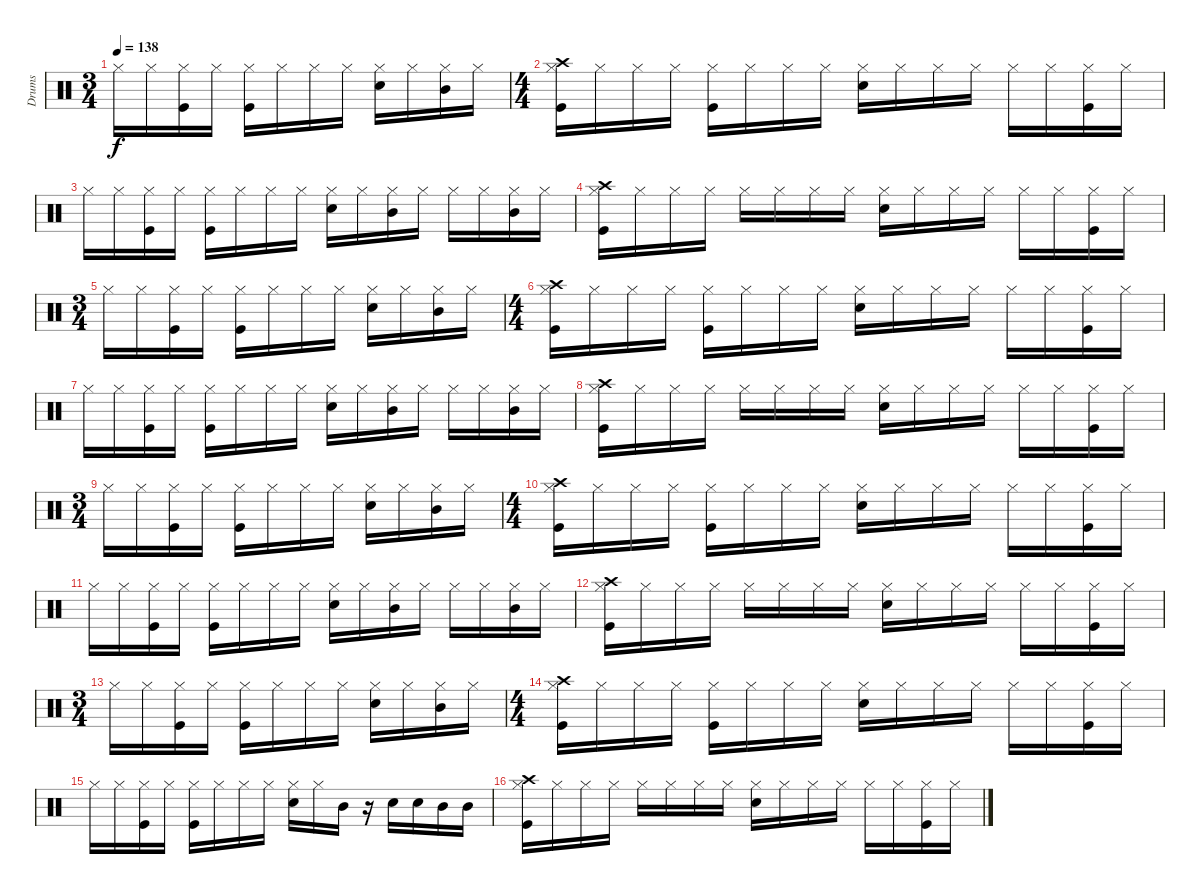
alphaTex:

\track ("Drums" "Drums") {instrument percussion}
\staff {score}
\articulation defaults
\ts (3 4)
\tempo 138
\clef neutral
\ks c "Hi-Hat (closed)".16{dy f} "Hi-Hat (closed)".16
("Hi-Hat (closed)" "Kick (hit)").16 "Hi-Hat (closed)".16 ("Hi-Hat (closed)" "Kick (hit)").16 "Hi-Hat (closed)".16 "Hi-Hat (closed)".16 "Hi-Hat (closed)".16 ("Hi-Hat (closed)" "Electric Snare (hit)").16 "Hi-Hat (closed)".16 ("Hi-Hat (closed)" "Mid Tom (hit)").16 "Hi-Hat (closed)".16 |
\ts (4 4)
("Crash high (hit)" "Hi-Hat (closed)" "Kick (hit)").16 "Hi-Hat (closed)".16 "Hi-Hat (closed)".16 "Hi-Hat (closed)".16 ("Hi-Hat (closed)" "Kick (hit)").16 "Hi-Hat (closed)".16 "Hi-Hat (closed)".16 "Hi-Hat (closed)".16 ("Hi-Hat (closed)" "Electric Snare (hit)").16 "Hi-Hat (closed)".16 "Hi-Hat (closed)".16 "Hi-Hat (closed)".16 "Hi-Hat (closed)".16 "Hi-Hat (closed)".16 ("Hi-Hat (closed)" "Kick (hit)").16 "Hi-Hat (closed)".16 |
"Hi-Hat (closed)".16 "Hi-Hat (closed)".16 ("Hi-Hat (closed)" "Kick (hit)").16 "Hi-Hat (closed)".16 ("Hi-Hat (closed)" "Kick (hit)").16 "Hi-Hat (closed)".16 "Hi-Hat (closed)".16 "Hi-Hat (closed)".16 ("Hi-Hat (closed)" "Electric Snare (hit)").16 "Hi-Hat (closed)".16 ("Hi-Hat (closed)" "Mid Tom (hit)").16 "Hi-Hat (closed)".16 "Hi-Hat (closed)".16 "Hi-Hat (closed)".16 ("Hi-Hat (closed)" "Mid Tom (hit)").16 "Hi-Hat (closed)".16 |
("Crash high (hit)" "Hi-Hat (closed)" "Kick (hit)").16 "Hi-Hat (closed)".16 "Hi-Hat (closed)".16 "Hi-Hat (closed)".16 "Hi-Hat (closed)".16 "Hi-Hat (closed)".16 "Hi-Hat (closed)".16 "Hi-Hat (closed)".16 ("Hi-Hat (closed)" "Electric Snare (hit)").16 "Hi-Hat (closed)".16 "Hi-Hat (closed)".16 "Hi-Hat (closed)".16 "Hi-Hat (closed)".16 "Hi-Hat (closed)".16 ("Hi-Hat (closed)" "Kick (hit)").16 "Hi-Hat (closed)".16 |
\ts (3 4)
"Hi-Hat (closed)".16 "Hi-Hat (closed)".16 ("Hi-Hat (closed)" "Kick (hit)").16 "Hi-Hat (closed)".16 ("Hi-Hat (closed)" "Kick (hit)").16 "Hi-Hat (closed)".16 "Hi-Hat (closed)".16 "Hi-Hat (closed)".16 ("Hi-Hat (closed)" "Electric Snare (hit)").16 "Hi-Hat (closed)".16 ("Hi-Hat (closed)" "Mid Tom (hit)").16 "Hi-Hat (closed)".16 |
\ts (4 4)
("Crash high (hit)" "Hi-Hat (closed)" "Kick (hit)").16 "Hi-Hat (closed)".16 "Hi-Hat (closed)".16 "Hi-Hat (closed)".16 ("Hi-Hat (closed)" "Kick (hit)").16 "Hi-Hat (closed)".16 "Hi-Hat (closed)".16 "Hi-Hat (closed)".16 ("Hi-Hat (closed)" "Electric Snare (hit)").16 "Hi-Hat (closed)".16 "Hi-Hat (closed)".16 "Hi-Hat (closed)".16 "Hi-Hat (closed)".16 "Hi-Hat (closed)".16 ("Hi-Hat (closed)" "Kick (hit)").16 "Hi-Hat (closed)".16 |
"Hi-Hat (closed)".16 "Hi-Hat (closed)".16 ("Hi-Hat (closed)" "Kick (hit)").16 "Hi-Hat (closed)".16 ("Hi-Hat (closed)" "Kick (hit)").16 "Hi-Hat (closed)".16 "Hi-Hat (closed)".16 "Hi-Hat (closed)".16 ("Hi-Hat (closed)" "Electric Snare (hit)").16 "Hi-Hat (closed)".16 ("Hi-Hat (closed)" "Mid Tom (hit)").16 "Hi-Hat (closed)".16 "Hi-Hat (closed)".16 "Hi-Hat (closed)".16 ("Hi-Hat (closed)" "Mid Tom (hit)").16 "Hi-Hat (closed)".16 |
("Crash high (hit)" "Hi-Hat (closed)" "Kick (hit)").16 "Hi-Hat (closed)".16 "Hi-Hat (closed)".16 "Hi-Hat (closed)".16 "Hi-Hat (closed)".16 "Hi-Hat (closed)".16 "Hi-Hat (closed)".16 "Hi-Hat (closed)".16 ("Hi-Hat (closed)" "Electric Snare (hit)").16 "Hi-Hat (closed)".16 "Hi-Hat (closed)".16 "Hi-Hat (closed)".16 "Hi-Hat (closed)".16 "Hi-Hat (closed)".16 ("Hi-Hat (closed)" "Kick (hit)").16 "Hi-Hat (closed)".16 |
\ts (3 4)
"Hi-Hat (closed)".16 "Hi-Hat (closed)".16 ("Hi-Hat (closed)" "Kick (hit)").16 "Hi-Hat (closed)".16 ("Hi-Hat (closed)" "Kick (hit)").16 "Hi-Hat (closed)".16 "Hi-Hat (closed)".16 "Hi-Hat (closed)".16 ("Hi-Hat (closed)" "Electric Snare (hit)").16 "Hi-Hat (closed)".16 ("Hi-Hat (closed)" "Mid Tom (hit)").16 "Hi-Hat (closed)".16 |
\ts (4 4)
("Crash high (hit)" "Hi-Hat (closed)" "Kick (hit)").16 "Hi-Hat (closed)".16 "Hi-Hat (closed)".16 "Hi-Hat (closed)".16 ("Hi-Hat (closed)" "Kick (hit)").16 "Hi-Hat (closed)".16 "Hi-Hat (closed)".16 "Hi-Hat (closed)".16 ("Hi-Hat (closed)" "Electric Snare (hit)").16 "Hi-Hat (closed)".16 "Hi-Hat (closed)".16 "Hi-Hat (closed)".16 "Hi-Hat (closed)".16 "Hi-Hat (closed)".16 ("Hi-Hat (closed)" "Kick (hit)").16 "Hi-Hat (closed)".16 |
"Hi-Hat (closed)".16 "Hi-Hat (closed)".16 ("Hi-Hat (closed)" "Kick (hit)").16 "Hi-Hat (closed)".16 ("Hi-Hat (closed)" "Kick (hit)").16 "Hi-Hat (closed)".16 "Hi-Hat (closed)".16 "Hi-Hat (closed)".16 ("Hi-Hat (closed)" "Electric Snare (hit)").16 "Hi-Hat (closed)".16 ("Hi-Hat (closed)" "Mid Tom (hit)").16 "Hi-Hat (closed)".16 "Hi-Hat (closed)".16 "Hi-Hat (closed)".16 ("Hi-Hat (closed)" "Mid Tom (hit)").16 "Hi-Hat (closed)".16 |
("Crash high (hit)" "Hi-Hat (closed)" "Kick (hit)").16 "Hi-Hat (closed)".16 "Hi-Hat (closed)".16 "Hi-Hat (closed)".16 "Hi-Hat (closed)".16 "Hi-Hat (closed)".16 "Hi-Hat (closed)".16 "Hi-Hat (closed)".16 ("Hi-Hat (closed)" "Electric Snare (hit)").16 "Hi-Hat (closed)".16 "Hi-Hat (closed)".16 "Hi-Hat (closed)".16 "Hi-Hat (closed)".16 "Hi-Hat (closed)".16 ("Hi-Hat (closed)" "Kick (hit)").16 "Hi-Hat (closed)".16 |
\ts (3 4)
"Hi-Hat (closed)".16 "Hi-Hat (closed)".16 ("Hi-Hat (closed)" "Kick (hit)").16 "Hi-Hat (closed)".16 ("Hi-Hat (closed)" "Kick (hit)").16 "Hi-Hat (closed)".16 "Hi-Hat (closed)".16 "Hi-Hat (closed)".16 ("Hi-Hat (closed)" "Electric Snare (hit)").16 "Hi-Hat (closed)".16 ("Hi-Hat (closed)" "Mid Tom (hit)").16 "Hi-Hat (closed)".16 |
\ts (4 4)
("Crash high (hit)" "Hi-Hat (closed)" "Kick (hit)").16 "Hi-Hat (closed)".16 "Hi-Hat (closed)".16 "Hi-Hat (closed)".16 ("Hi-Hat (closed)" "Kick (hit)").16 "Hi-Hat (closed)".16 "Hi-Hat (closed)".16 "Hi-Hat (closed)".16 ("Hi-Hat (closed)" "Electric Snare (hit)").16 "Hi-Hat (closed)".16 "Hi-Hat (closed)".16 "Hi-Hat (closed)".16 "Hi-Hat (closed)".16 "Hi-Hat (closed)".16 ("Hi-Hat (closed)" "Kick (hit)").16 "Hi-Hat (closed)".16 |
"Hi-Hat (closed)".16 "Hi-Hat (closed)".16 ("Hi-Hat (closed)" "Kick (hit)").16 "Hi-Hat (closed)".16 ("Hi-Hat (closed)" "Kick (hit)").16 "Hi-Hat (closed)".16 "Hi-Hat (closed)".16 "Hi-Hat (closed)".16 ("Hi-Hat (closed)" "Electric Snare (hit)").16 "Hi-Hat (closed)".16 "Mid Tom (hit)".16 r.16 "Electric Snare (hit)".16 "Electric Snare (hit)".16 "Mid Tom (hit)".16 "Mid Tom (hit)".16 |
("Crash high (hit)" "Hi-Hat (closed)" "Kick (hit)").16 "Hi-Hat (closed)".16 "Hi-Hat (closed)".16 "Hi-Hat (closed)".16 "Hi-Hat (closed)".16 "Hi-Hat (closed)".16 "Hi-Hat (closed)".16 "Hi-Hat (closed)".16 ("Hi-Hat (closed)" "Electric Snare (hit)").16 "Hi-Hat (closed)".16 "Hi-Hat (closed)".16 "Hi-Hat (closed)".16 "Hi-Hat (closed)".16 "Hi-Hat (closed)".16 ("Hi-Hat (closed)" "Kick (hit)").16 "Hi-Hat (closed)".16
